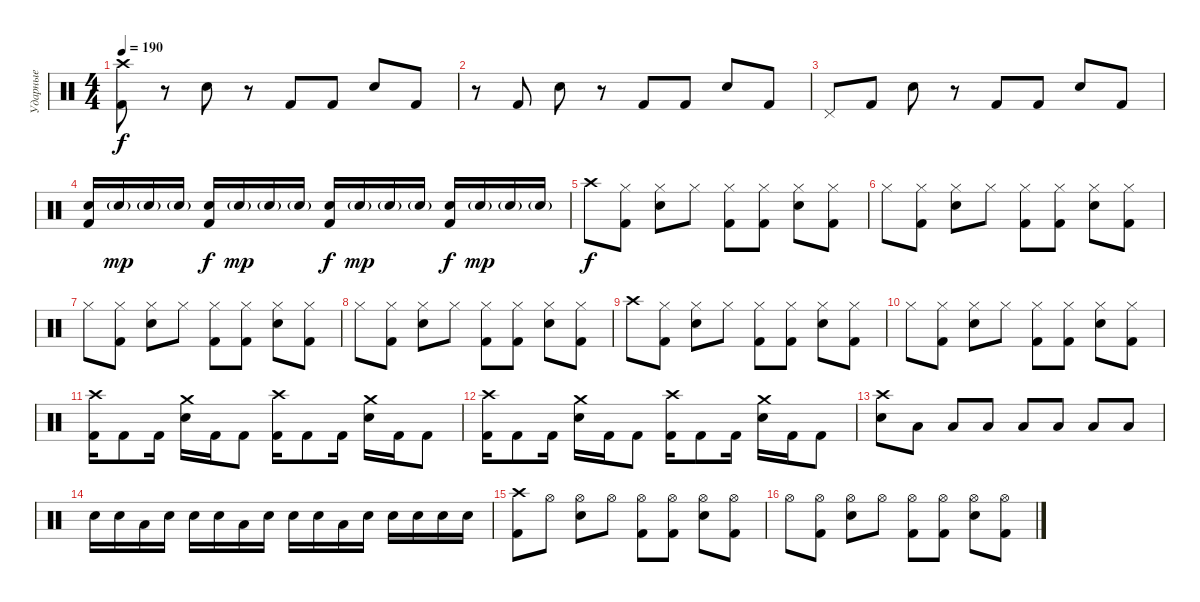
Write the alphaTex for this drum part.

\track ("Ударные" "Ударные") {instrument percussion}
\staff {score}
\articulation defaults
\ts (4 4)
\tempo 190
\clef neutral
\ks c
("Crash high (hit)" "Kick (hit) 2").8{dy f} r.8 "Electric Snare (hit)".8 r.8 "Kick (hit) 2".8 "Kick (hit) 2".8 "Electric Snare (hit)".8 "Kick (hit) 2".8 |
r.8 "Kick (hit) 2".8 "Electric Snare (hit)".8 r.8 "Kick (hit) 2".8 "Kick (hit) 2".8 "Electric Snare (hit)".8 "Kick (hit) 2".8 |
"Pedal Hi-Hat (hit)".8 "Kick (hit) 2".8 "Electric Snare (hit)".8 r.8 "Kick (hit) 2".8 "Kick (hit) 2".8 "Electric Snare (hit)".8 "Kick (hit) 2".8 |
("Electric Snare (hit)" "Kick (hit) 2").16 "Electric Snare (hit)"{g}.16{dy mp} "Electric Snare (hit)"{g}.16 "Electric Snare (hit)"{g}.16 ("Electric Snare (hit)" "Kick (hit) 2").16{dy f} "Electric Snare (hit)"{g}.16{dy mp} "Electric Snare (hit)"{g}.16 "Electric Snare (hit)"{g}.16 ("Electric Snare (hit)" "Kick (hit) 2").16{dy f} "Electric Snare (hit)"{g}.16{dy mp} "Electric Snare (hit)"{g}.16 "Electric Snare (hit)"{g}.16 ("Electric Snare (hit)" "Kick (hit) 2").16{dy f} "Electric Snare (hit)"{g}.16{dy mp} "Electric Snare (hit)"{g}.16 "Electric Snare (hit)"{g}.16 |
"Crash high (hit)".8{dy f} ("Hi-Hat (closed)" "Kick (hit) 2").8 ("Hi-Hat (closed)" "Electric Snare (hit)").8 "Hi-Hat (closed)".8 ("Hi-Hat (closed)" "Kick (hit) 2").8 ("Hi-Hat (closed)" "Kick (hit) 2").8 ("Hi-Hat (closed)" "Electric Snare (hit)").8 ("Hi-Hat (closed)" "Kick (hit) 2").8 |
"Hi-Hat (closed)".8 ("Hi-Hat (closed)" "Kick (hit) 2").8 ("Hi-Hat (closed)" "Electric Snare (hit)").8 "Hi-Hat (closed)".8 ("Hi-Hat (closed)" "Kick (hit) 2").8 ("Hi-Hat (closed)" "Kick (hit) 2").8 ("Hi-Hat (closed)" "Electric Snare (hit)").8 ("Hi-Hat (closed)" "Kick (hit) 2").8 |
"Hi-Hat (closed)".8 ("Hi-Hat (closed)" "Kick (hit) 2").8 ("Hi-Hat (closed)" "Electric Snare (hit)").8 "Hi-Hat (closed)".8 ("Hi-Hat (closed)" "Kick (hit) 2").8 ("Hi-Hat (closed)" "Kick (hit) 2").8 ("Hi-Hat (closed)" "Electric Snare (hit)").8 ("Hi-Hat (closed)" "Kick (hit) 2").8 |
"Hi-Hat (closed)".8 ("Hi-Hat (closed)" "Kick (hit) 2").8 ("Hi-Hat (closed)" "Electric Snare (hit)").8 "Hi-Hat (closed)".8 ("Hi-Hat (closed)" "Kick (hit) 2").8 ("Hi-Hat (closed)" "Kick (hit) 2").8 ("Hi-Hat (closed)" "Electric Snare (hit)").8 ("Hi-Hat (closed)" "Kick (hit) 2").8 |
"Crash high (hit)".8 ("Hi-Hat (closed)" "Kick (hit) 2").8 ("Hi-Hat (closed)" "Electric Snare (hit)").8 "Hi-Hat (closed)".8 ("Hi-Hat (closed)" "Kick (hit) 2").8 ("Hi-Hat (closed)" "Kick (hit) 2").8 ("Hi-Hat (closed)" "Electric Snare (hit)").8 ("Hi-Hat (closed)" "Kick (hit) 2").8 |
"Hi-Hat (closed)".8 ("Hi-Hat (closed)" "Kick (hit) 2").8 ("Hi-Hat (closed)" "Electric Snare (hit)").8 "Hi-Hat (closed)".8 ("Hi-Hat (closed)" "Kick (hit) 2").8 ("Hi-Hat (closed)" "Kick (hit) 2").8 ("Hi-Hat (closed)" "Electric Snare (hit)").8 ("Hi-Hat (closed)" "Kick (hit) 2").8 |
("Crash high (hit)" "Kick (hit) 2").16 "Kick (hit) 2".8 "Kick (hit) 2".16 ("Crash medium (hit)" "Electric Snare (hit)").16 "Kick (hit) 2".16 "Kick (hit) 2".8 ("Crash high (hit)" "Kick (hit) 2").16 "Kick (hit) 2".8 "Kick (hit) 2".16 ("Crash medium (hit)" "Electric Snare (hit)").16 "Kick (hit) 2".16 "Kick (hit) 2".8 |
("Crash high (hit)" "Kick (hit) 2").16 "Kick (hit) 2".8 "Kick (hit) 2".16 ("Crash medium (hit)" "Electric Snare (hit)").16 "Kick (hit) 2".16 "Kick (hit) 2".8 ("Crash high (hit)" "Kick (hit) 2").16 "Kick (hit) 2".8 "Kick (hit) 2".16 ("Crash medium (hit)" "Electric Snare (hit)").16 "Kick (hit) 2".16 "Kick (hit) 2".8 |
("Crash high (hit)" "Electric Snare (hit)").8 "Low Tom (hit)".8 "Low Tom (hit)".8 "Low Tom (hit)".8 "Low Tom (hit)".8 "Low Tom (hit)".8 "Low Tom (hit)".8 "Low Tom (hit)".8 |
"Electric Snare (hit)".16 "Electric Snare (hit)".16 "Low Tom (hit)".16 "Electric Snare (hit)".16 "Electric Snare (hit)".16 "Electric Snare (hit)".16 "Low Tom (hit)".16 "Electric Snare (hit)".16 "Electric Snare (hit)".16 "Electric Snare (hit)".16 "Low Tom (hit)".16 "Electric Snare (hit)".16 "Electric Snare (hit)".16 "Electric Snare (hit)".16 "Electric Snare (hit)".16 "Electric Snare (hit)".16 |
("Crash high (hit)" "Kick (hit) 2").8 "Hi-Hat (open)".8 ("Hi-Hat (open)" "Electric Snare (hit)").8 "Hi-Hat (open)".8 ("Hi-Hat (open)" "Kick (hit) 2").8 ("Hi-Hat (open)" "Kick (hit) 2").8 ("Hi-Hat (open)" "Electric Snare (hit)").8 ("Hi-Hat (open)" "Kick (hit) 2").8 |
"Hi-Hat (open)".8 ("Hi-Hat (open)" "Kick (hit) 2").8 ("Hi-Hat (open)" "Electric Snare (hit)").8 "Hi-Hat (open)".8 ("Hi-Hat (open)" "Kick (hit) 2").8 ("Hi-Hat (open)" "Kick (hit) 2").8 ("Hi-Hat (open)" "Electric Snare (hit)").8 ("Hi-Hat (open)" "Kick (hit) 2").8
